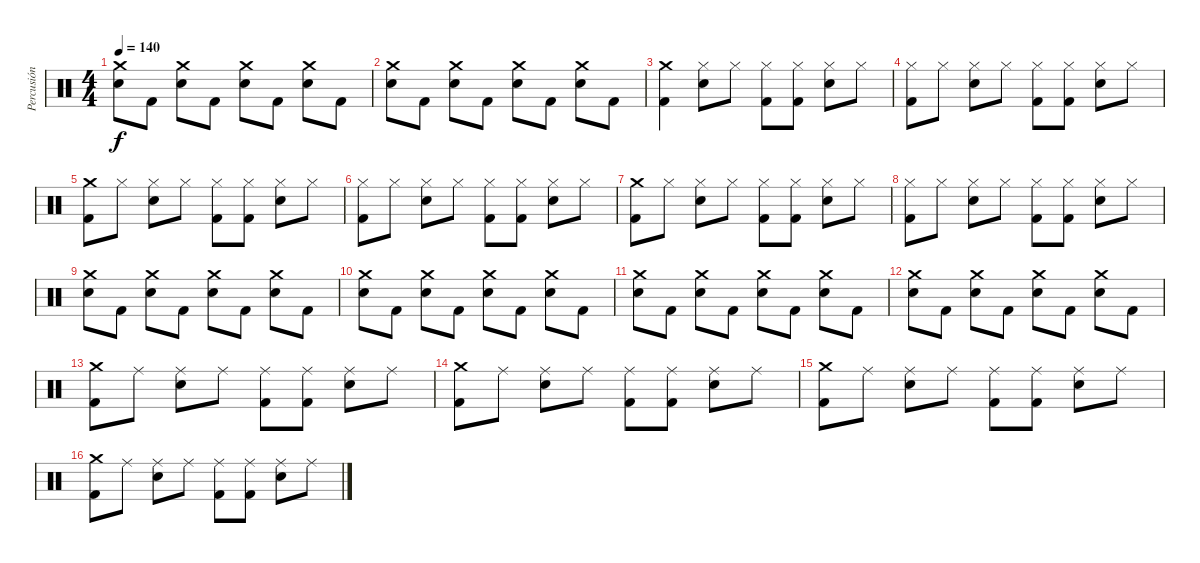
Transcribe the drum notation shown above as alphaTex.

\track ("Percusión" "Percusión") {instrument percussion}
\staff {score}
\articulation defaults
\ts (4 4)
\tempo 140
\clef neutral
\ks c
("Crash medium (hit)" "Snare (hit) 2").8{dy f} "Kick (hit) 2".8 ("Crash medium (hit)" "Snare (hit) 2").8 "Kick (hit) 2".8 ("Crash medium (hit)" "Snare (hit) 2").8 "Kick (hit) 2".8 ("Crash medium (hit)" "Snare (hit) 2").8 "Kick (hit) 2".8 |
("Crash medium (hit)" "Snare (hit) 2").8 "Kick (hit) 2".8 ("Crash medium (hit)" "Snare (hit) 2").8 "Kick (hit) 2".8 ("Crash medium (hit)" "Snare (hit) 2").8 "Kick (hit) 2".8 ("Crash medium (hit)" "Snare (hit) 2").8 "Kick (hit) 2".8 |
("Crash medium (hit)" "Kick (hit) 2").4 ("Hi-Hat (closed)" "Snare (hit) 2").8 "Hi-Hat (closed)".8 ("Hi-Hat (closed)" "Kick (hit) 2").8 ("Hi-Hat (closed)" "Kick (hit) 2").8 ("Hi-Hat (closed)" "Snare (hit) 2").8 "Hi-Hat (closed)".8 |
("Hi-Hat (closed)" "Kick (hit) 2").8 "Hi-Hat (closed)".8 ("Hi-Hat (closed)" "Snare (hit) 2").8 "Hi-Hat (closed)".8 ("Hi-Hat (closed)" "Kick (hit) 2").8 ("Hi-Hat (closed)" "Kick (hit) 2").8 ("Hi-Hat (closed)" "Snare (hit) 2").8 "Hi-Hat (closed)".8 |
("Crash medium (hit)" "Kick (hit) 2").8 "Hi-Hat (closed)".8 ("Hi-Hat (closed)" "Snare (hit) 2").8 "Hi-Hat (closed)".8 ("Hi-Hat (closed)" "Kick (hit) 2").8 ("Hi-Hat (closed)" "Kick (hit) 2").8 ("Hi-Hat (closed)" "Snare (hit) 2").8 "Hi-Hat (closed)".8 |
("Hi-Hat (closed)" "Kick (hit) 2").8 "Hi-Hat (closed)".8 ("Hi-Hat (closed)" "Snare (hit) 2").8 "Hi-Hat (closed)".8 ("Hi-Hat (closed)" "Kick (hit) 2").8 ("Hi-Hat (closed)" "Kick (hit) 2").8 ("Hi-Hat (closed)" "Snare (hit) 2").8 "Hi-Hat (closed)".8 |
("Crash medium (hit)" "Kick (hit) 2").8 "Hi-Hat (closed)".8 ("Hi-Hat (closed)" "Snare (hit) 2").8 "Hi-Hat (closed)".8 ("Hi-Hat (closed)" "Kick (hit) 2").8 ("Hi-Hat (closed)" "Kick (hit) 2").8 ("Hi-Hat (closed)" "Snare (hit) 2").8 "Hi-Hat (closed)".8 |
("Hi-Hat (closed)" "Kick (hit) 2").8 "Hi-Hat (closed)".8 ("Hi-Hat (closed)" "Snare (hit) 2").8 "Hi-Hat (closed)".8 ("Hi-Hat (closed)" "Kick (hit) 2").8 ("Hi-Hat (closed)" "Kick (hit) 2").8 ("Hi-Hat (closed)" "Snare (hit) 2").8 "Hi-Hat (closed)".8 |
("Crash medium (hit)" "Snare (hit) 2").8 "Kick (hit) 2".8 ("Crash medium (hit)" "Snare (hit) 2").8 "Kick (hit) 2".8 ("Crash medium (hit)" "Snare (hit) 2").8 "Kick (hit) 2".8 ("Crash medium (hit)" "Snare (hit) 2").8 "Kick (hit) 2".8 |
("Crash medium (hit)" "Snare (hit) 2").8 "Kick (hit) 2".8 ("Crash medium (hit)" "Snare (hit) 2").8 "Kick (hit) 2".8 ("Crash medium (hit)" "Snare (hit) 2").8 "Kick (hit) 2".8 ("Crash medium (hit)" "Snare (hit) 2").8 "Kick (hit) 2".8 |
("Crash medium (hit)" "Snare (hit) 2").8 "Kick (hit) 2".8 ("Crash medium (hit)" "Snare (hit) 2").8 "Kick (hit) 2".8 ("Crash medium (hit)" "Snare (hit) 2").8 "Kick (hit) 2".8 ("Crash medium (hit)" "Snare (hit) 2").8 "Kick (hit) 2".8 |
("Crash medium (hit)" "Snare (hit) 2").8 "Kick (hit) 2".8 ("Crash medium (hit)" "Snare (hit) 2").8 "Kick (hit) 2".8 ("Crash medium (hit)" "Snare (hit) 2").8 "Kick (hit) 2".8 ("Crash medium (hit)" "Snare (hit) 2").8 "Kick (hit) 2".8 |
("Crash medium (hit)" "Kick (hit) 2").8 "Ride (middle)".8 ("Ride (middle)" "Snare (hit) 2").8 "Ride (middle)".8 ("Ride (middle)" "Kick (hit) 2").8 ("Ride (middle)" "Kick (hit) 2").8 ("Ride (middle)" "Snare (hit) 2").8 "Ride (middle)".8 |
("Crash medium (hit)" "Kick (hit) 2").8 "Ride (middle)".8 ("Ride (middle)" "Snare (hit) 2").8 "Ride (middle)".8 ("Ride (middle)" "Kick (hit) 2").8 ("Ride (middle)" "Kick (hit) 2").8 ("Ride (middle)" "Snare (hit) 2").8 "Ride (middle)".8 |
("Crash medium (hit)" "Kick (hit) 2").8 "Ride (middle)".8 ("Ride (middle)" "Snare (hit) 2").8 "Ride (middle)".8 ("Ride (middle)" "Kick (hit) 2").8 ("Ride (middle)" "Kick (hit) 2").8 ("Ride (middle)" "Snare (hit) 2").8 "Ride (middle)".8 |
("Crash medium (hit)" "Kick (hit) 2").8 "Ride (middle)".8 ("Ride (middle)" "Snare (hit) 2").8 "Ride (middle)".8 ("Ride (middle)" "Kick (hit) 2").8 ("Ride (middle)" "Kick (hit) 2").8 ("Ride (middle)" "Snare (hit) 2").8 "Ride (middle)".8
